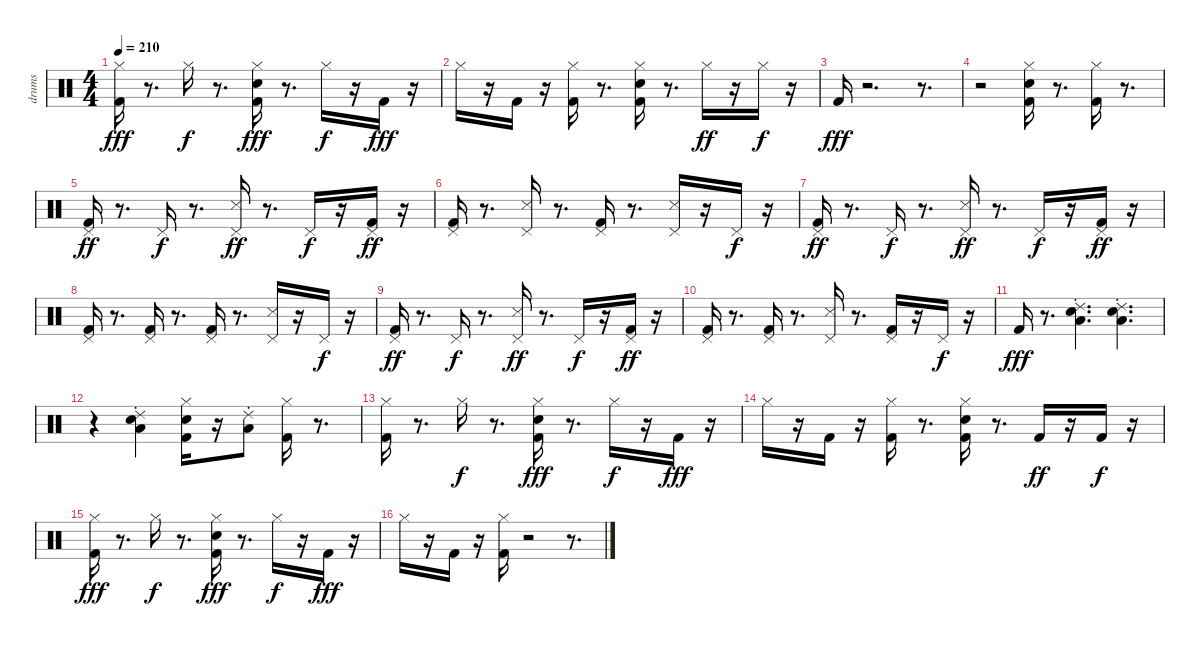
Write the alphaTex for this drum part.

\track ("drums" "drums") {instrument percussion}
\staff {score}
\articulation defaults
\ts (4 4)
\tempo 210
\clef neutral
\ks c
("Hi-Hat (closed)" "Kick (hit) 2").16{dy fff} r.8{d} "Hi-Hat (closed)".16{dy f} r.8{d} ("Electric Snare (hit)" "Hi-Hat (closed)" "Kick (hit) 2").16{dy fff} r.8{d} "Hi-Hat (closed)".16{dy f} r.16 "Kick (hit) 2".16{dy fff} r.16 |
"Hi-Hat (closed)".16 r.16 "Kick (hit) 2".16 r.16 ("Hi-Hat (closed)" "Kick (hit) 2").16 r.8{d} ("Electric Snare (hit)" "Hi-Hat (closed)" "Kick (hit) 2").16 r.8{d} "Hi-Hat (closed)".16{dy ff} r.16 "Hi-Hat (closed)".16{dy f} r.16 |
"Kick (hit) 2".16{dy fff} r.2{d} r.8{d} |
r.2 ("Hi-Hat (closed)" "Electric Snare (hit)" "Kick (hit) 2").16 r.8{d} ("Hi-Hat (closed)" "Kick (hit) 2").16 r.8{d} |
("Kick (hit) 2" "Pedal Hi-Hat (hit)").16{dy ff} r.8{d} "Pedal Hi-Hat (hit)".16{dy f} r.8{d} ("Snare (side stick) 3" "Pedal Hi-Hat (hit)").16{dy ff} r.8{d} "Pedal Hi-Hat (hit)".16{dy f} r.16 ("Kick (hit) 2" "Pedal Hi-Hat (hit)").16{dy ff} r.16 |
("Kick (hit) 2" "Pedal Hi-Hat (hit)").16 r.8{d} ("Pedal Hi-Hat (hit)" "Snare (side stick) 3").16 r.8{d} ("Kick (hit) 2" "Pedal Hi-Hat (hit)").16 r.8{d} ("Pedal Hi-Hat (hit)" "Snare (side stick) 3").16 r.16 "Pedal Hi-Hat (hit)".16{dy f} r.16 |
("Pedal Hi-Hat (hit)" "Kick (hit) 2").16{dy ff} r.8{d} "Pedal Hi-Hat (hit)".16{dy f} r.8{d} ("Snare (side stick) 3" "Pedal Hi-Hat (hit)").16{dy ff} r.8{d} "Pedal Hi-Hat (hit)".16{dy f} r.16 ("Kick (hit) 2" "Pedal Hi-Hat (hit)").16{dy ff} r.16 |
("Kick (hit) 2" "Pedal Hi-Hat (hit)").16 r.8{d} ("Pedal Hi-Hat (hit)" "Kick (hit) 2").16 r.8{d} ("Kick (hit) 2" "Pedal Hi-Hat (hit)").16 r.8{d} ("Pedal Hi-Hat (hit)" "Snare (side stick) 3").16 r.16 "Pedal Hi-Hat (hit)".16{dy f} r.16 |
("Pedal Hi-Hat (hit)" "Kick (hit) 2").16{dy ff} r.8{d} "Pedal Hi-Hat (hit)".16{dy f} r.8{d} ("Snare (side stick) 3" "Pedal Hi-Hat (hit)").16{dy ff} r.8{d} "Pedal Hi-Hat (hit)".16{dy f} r.16 ("Kick (hit) 2" "Pedal Hi-Hat (hit)").16{dy ff} r.16 |
("Kick (hit) 2" "Pedal Hi-Hat (hit)").16 r.8{d} ("Pedal Hi-Hat (hit)" "Kick (hit) 2").16 r.8{d} ("Pedal Hi-Hat (hit)" "Snare (side stick) 3").16 r.8{d} ("Pedal Hi-Hat (hit)" "Kick (hit) 2").16 r.16 "Pedal Hi-Hat (hit)".16{dy f} r.16 |
"Kick (hit) 2".16{dy fff} r.8{d} ("Ride (choke) 2" "Snare (hit) 2" "Low Floor Tom (hit)").4{d} ("Ride (choke) 2" "Low Floor Tom (hit)" "Snare (hit) 2").4{d} |
r.4 ("Ride (choke) 2" "Snare (hit) 2" "Low Floor Tom (hit)").4 ("Electric Snare (hit)" "Hi-Hat (closed)" "Kick (hit) 2").16 r.16 ("Ride (choke) 2" "Low Floor Tom (hit)").8 ("Hi-Hat (closed)" "Kick (hit) 2").16 r.8{d} |
("Kick (hit) 2" "Hi-Hat (closed)").16 r.8{d} "Hi-Hat (closed)".16{dy f} r.8{d} ("Electric Snare (hit)" "Hi-Hat (closed)" "Kick (hit) 2").16{dy fff} r.8{d} "Hi-Hat (closed)".16{dy f} r.16 "Kick (hit) 2".16{dy fff} r.16 |
"Hi-Hat (closed)".16 r.16 "Kick (hit) 2".16 r.16 ("Hi-Hat (closed)" "Kick (hit) 2").16 r.8{d} ("Electric Snare (hit)" "Hi-Hat (closed)" "Kick (hit) 2").16 r.8{d} "Kick (hit) 2".16{dy ff} r.16 "Kick (hit) 2".16{dy f} r.16 |
("Hi-Hat (closed)" "Kick (hit) 2").16{dy fff} r.8{d} "Hi-Hat (closed)".16{dy f} r.8{d} ("Electric Snare (hit)" "Hi-Hat (closed)" "Kick (hit) 2").16{dy fff} r.8{d} "Hi-Hat (closed)".16{dy f} r.16 "Kick (hit) 2".16{dy fff} r.16 |
"Hi-Hat (closed)".16 r.16 "Kick (hit) 2".16 r.16 ("Hi-Hat (closed)" "Kick (hit) 2").16 r.2 r.8{d}
